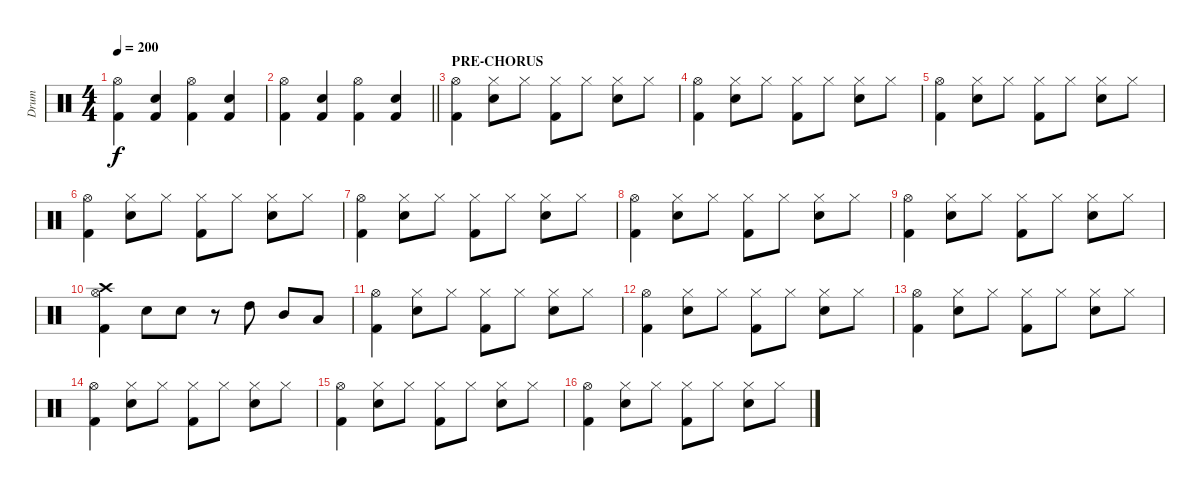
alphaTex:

\track ("Drum" "Drum") {instrument percussion}
\staff {score}
\articulation defaults
\ts (4 4)
\tempo 200
\clef neutral
\ks c
("Hi-Hat (open)" "Kick (hit) 2").4{dy f} ("Snare (hit) 2" "Kick (hit) 2").4 ("Hi-Hat (open)" "Kick (hit) 2").4 ("Snare (hit) 2" "Kick (hit) 2").4 |
\barLineRight lightlight
("Hi-Hat (open)" "Kick (hit) 2").4 ("Snare (hit) 2" "Kick (hit) 2").4 ("Hi-Hat (open)" "Kick (hit) 2").4 ("Snare (hit) 2" "Kick (hit) 2").4 |
\section ("" "PRE-CHORUS")
("Hi-Hat (open)" "Kick (hit) 2").4 ("Hi-Hat (closed)" "Snare (hit) 2").8 "Hi-Hat (closed)".8 ("Hi-Hat (closed)" "Kick (hit) 2").8 "Hi-Hat (closed)".8 ("Hi-Hat (closed)" "Snare (hit) 2").8 "Hi-Hat (closed)".8 |
("Hi-Hat (open)" "Kick (hit) 2").4 ("Hi-Hat (closed)" "Snare (hit) 2").8 "Hi-Hat (closed)".8 ("Hi-Hat (closed)" "Kick (hit) 2").8 "Hi-Hat (closed)".8 ("Hi-Hat (closed)" "Snare (hit) 2").8 "Hi-Hat (closed)".8 |
("Hi-Hat (open)" "Kick (hit) 2").4 ("Hi-Hat (closed)" "Snare (hit) 2").8 "Hi-Hat (closed)".8 ("Hi-Hat (closed)" "Kick (hit) 2").8 "Hi-Hat (closed)".8 ("Hi-Hat (closed)" "Snare (hit) 2").8 "Hi-Hat (closed)".8 |
("Hi-Hat (open)" "Kick (hit) 2").4 ("Hi-Hat (closed)" "Snare (hit) 2").8 "Hi-Hat (closed)".8 ("Hi-Hat (closed)" "Kick (hit) 2").8 "Hi-Hat (closed)".8 ("Hi-Hat (closed)" "Snare (hit) 2").8 "Hi-Hat (closed)".8 |
("Hi-Hat (open)" "Kick (hit) 2").4 ("Hi-Hat (closed)" "Snare (hit) 2").8 "Hi-Hat (closed)".8 ("Hi-Hat (closed)" "Kick (hit) 2").8 "Hi-Hat (closed)".8 ("Hi-Hat (closed)" "Snare (hit) 2").8 "Hi-Hat (closed)".8 |
("Hi-Hat (open)" "Kick (hit) 2").4 ("Hi-Hat (closed)" "Snare (hit) 2").8 "Hi-Hat (closed)".8 ("Hi-Hat (closed)" "Kick (hit) 2").8 "Hi-Hat (closed)".8 ("Hi-Hat (closed)" "Snare (hit) 2").8 "Hi-Hat (closed)".8 |
("Hi-Hat (open)" "Kick (hit) 2").4 ("Hi-Hat (closed)" "Snare (hit) 2").8 "Hi-Hat (closed)".8 ("Hi-Hat (closed)" "Kick (hit) 2").8 "Hi-Hat (closed)".8 ("Hi-Hat (closed)" "Snare (hit) 2").8 "Hi-Hat (closed)".8 |
("Crash high (hit)" "Hi-Hat (open)" "Kick (hit) 2").4 "Snare (hit) 2".8 "Snare (hit) 2".8 r.8 "High Tom (hit)".8 "Mid Tom (hit)".8 "Low Tom (hit)".8 |
("Hi-Hat (open)" "Kick (hit) 2").4 ("Hi-Hat (closed)" "Snare (hit) 2").8 "Hi-Hat (closed)".8 ("Hi-Hat (closed)" "Kick (hit) 2").8 "Hi-Hat (closed)".8 ("Hi-Hat (closed)" "Snare (hit) 2").8 "Hi-Hat (closed)".8 |
("Hi-Hat (open)" "Kick (hit) 2").4 ("Hi-Hat (closed)" "Snare (hit) 2").8 "Hi-Hat (closed)".8 ("Hi-Hat (closed)" "Kick (hit) 2").8 "Hi-Hat (closed)".8 ("Hi-Hat (closed)" "Snare (hit) 2").8 "Hi-Hat (closed)".8 |
("Hi-Hat (open)" "Kick (hit) 2").4 ("Hi-Hat (closed)" "Snare (hit) 2").8 "Hi-Hat (closed)".8 ("Hi-Hat (closed)" "Kick (hit) 2").8 "Hi-Hat (closed)".8 ("Hi-Hat (closed)" "Snare (hit) 2").8 "Hi-Hat (closed)".8 |
("Hi-Hat (open)" "Kick (hit) 2").4 ("Hi-Hat (closed)" "Snare (hit) 2").8 "Hi-Hat (closed)".8 ("Hi-Hat (closed)" "Kick (hit) 2").8 "Hi-Hat (closed)".8 ("Hi-Hat (closed)" "Snare (hit) 2").8 "Hi-Hat (closed)".8 |
("Hi-Hat (open)" "Kick (hit) 2").4 ("Hi-Hat (closed)" "Snare (hit) 2").8 "Hi-Hat (closed)".8 ("Hi-Hat (closed)" "Kick (hit) 2").8 "Hi-Hat (closed)".8 ("Hi-Hat (closed)" "Snare (hit) 2").8 "Hi-Hat (closed)".8 |
("Hi-Hat (open)" "Kick (hit) 2").4 ("Hi-Hat (closed)" "Snare (hit) 2").8 "Hi-Hat (closed)".8 ("Hi-Hat (closed)" "Kick (hit) 2").8 "Hi-Hat (closed)".8 ("Hi-Hat (closed)" "Snare (hit) 2").8 "Hi-Hat (closed)".8
